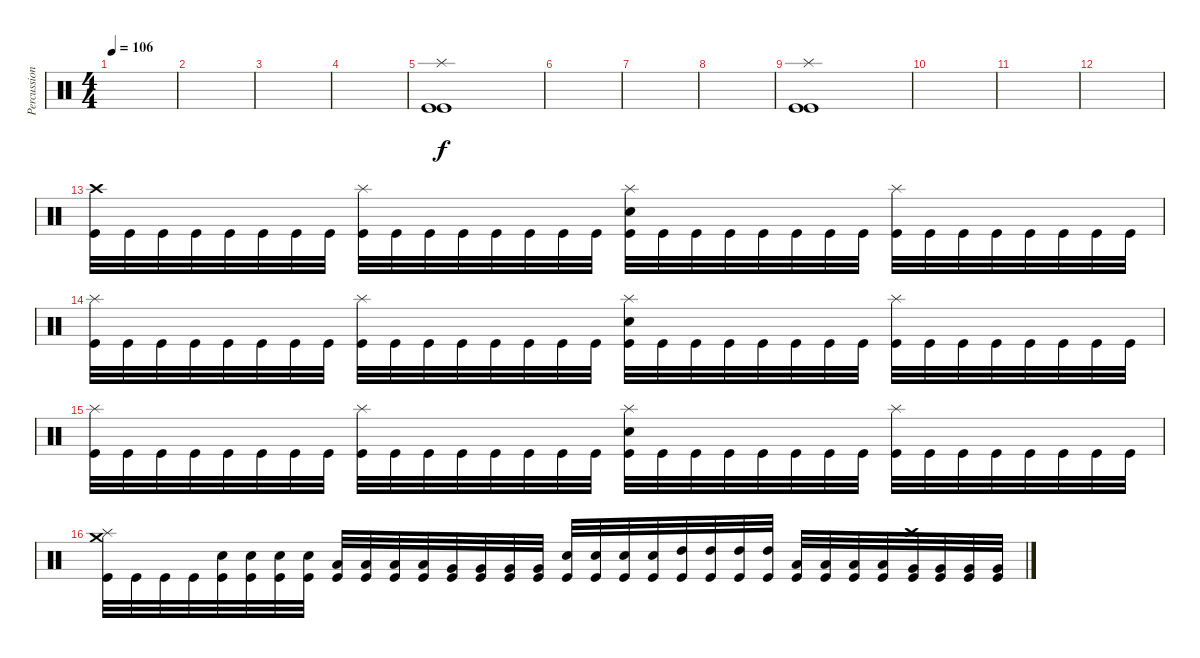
\track ("Percussion" "Percussion") {instrument percussion}
\staff {score}
\articulation defaults
\ts (4 4)
\tempo 106
\clef neutral
\ks c
|
|
|
|
("Splash (hit)" "Kick (hit)" "Kick (hit)").1 |
|
|
|
("Splash (hit)" "Kick (hit)" "Kick (hit)").1 |
|
|
|
("Crash high (hit)" "Kick (hit)").32 "Kick (hit)".32 "Kick (hit)".32 "Kick (hit)".32 "Kick (hit)".32 "Kick (hit)".32 "Kick (hit)".32 "Kick (hit)".32 ("Splash (hit)" "Kick (hit)").32 "Kick (hit)".32 "Kick (hit)".32 "Kick (hit)".32 "Kick (hit)".32 "Kick (hit)".32 "Kick (hit)".32 "Kick (hit)".32 ("Splash (hit)" "Electric Snare (hit)" "Kick (hit)").32 "Kick (hit)".32 "Kick (hit)".32 "Kick (hit)".32 "Kick (hit)".32 "Kick (hit)".32 "Kick (hit)".32 "Kick (hit)".32 ("Splash (hit)" "Kick (hit)").32 "Kick (hit)".32 "Kick (hit)".32 "Kick (hit)".32 "Kick (hit)".32 "Kick (hit)".32 "Kick (hit)".32 "Kick (hit)".32 |
("Splash (hit)" "Kick (hit)").32 "Kick (hit)".32 "Kick (hit)".32 "Kick (hit)".32 "Kick (hit)".32 "Kick (hit)".32 "Kick (hit)".32 "Kick (hit)".32 ("Splash (hit)" "Kick (hit)").32 "Kick (hit)".32 "Kick (hit)".32 "Kick (hit)".32 "Kick (hit)".32 "Kick (hit)".32 "Kick (hit)".32 "Kick (hit)".32 ("Electric Snare (hit)" "Splash (hit)" "Kick (hit)").32 "Kick (hit)".32 "Kick (hit)".32 "Kick (hit)".32 "Kick (hit)".32 "Kick (hit)".32 "Kick (hit)".32 "Kick (hit)".32 ("Splash (hit)" "Kick (hit)").32 "Kick (hit)".32 "Kick (hit)".32 "Kick (hit)".32 "Kick (hit)".32 "Kick (hit)".32 "Kick (hit)".32 "Kick (hit)".32 |
("Splash (hit)" "Kick (hit)").32 "Kick (hit)".32 "Kick (hit)".32 "Kick (hit)".32 "Kick (hit)".32 "Kick (hit)".32 "Kick (hit)".32 "Kick (hit)".32 ("Splash (hit)" "Kick (hit)").32 "Kick (hit)".32 "Kick (hit)".32 "Kick (hit)".32 "Kick (hit)".32 "Kick (hit)".32 "Kick (hit)".32 "Kick (hit)".32 ("Electric Snare (hit)" "Splash (hit)" "Kick (hit)").32 "Kick (hit)".32 "Kick (hit)".32 "Kick (hit)".32 "Kick (hit)".32 "Kick (hit)".32 "Kick (hit)".32 "Kick (hit)".32 ("Splash (hit)" "Kick (hit)").32 "Kick (hit)".32 "Kick (hit)".32 "Kick (hit)".32 "Kick (hit)".32 "Kick (hit)".32 "Kick (hit)".32 "Kick (hit)".32 |
("Crash medium (hit)" "Splash (hit)" "Kick (hit)").32 "Kick (hit)".32 "Kick (hit)".32 "Kick (hit)".32 ("Electric Snare (hit)" "Kick (hit)").32 ("Electric Snare (hit)" "Kick (hit)").32 ("Electric Snare (hit)" "Kick (hit)").32 ("Electric Snare (hit)" "Kick (hit)").32 ("Low Tom (hit)" "Kick (hit)").32 ("Low Tom (hit)" "Kick (hit)").32 ("Low Tom (hit)" "Kick (hit)").32 ("Low Tom (hit)" "Kick (hit)").32 ("Very Low Tom (hit)" "Kick (hit)").32 ("Very Low Tom (hit)" "Kick (hit)").32 ("Very Low Tom (hit)" "Kick (hit)").32 ("Very Low Tom (hit)" "Kick (hit)").32 ("Electric Snare (hit)" "Kick (hit)").32 ("Electric Snare (hit)" "Kick (hit)").32 ("Electric Snare (hit)" "Kick (hit)").32 ("Electric Snare (hit)" "Kick (hit)").32 ("High Tom (hit)" "Kick (hit)").32 ("High Tom (hit)" "Kick (hit)").32 ("High Tom (hit)" "Kick (hit)").32 ("High Tom (hit)" "Kick (hit)").32 ("Low Tom (hit)" "Kick (hit)").32 ("Low Tom (hit)" "Kick (hit)").32 ("Low Tom (hit)" "Kick (hit)").32 ("Low Tom (hit)" "Kick (hit)").32 ("Crash high (hit)" "Very Low Tom (hit)" "Kick (hit)").32 ("Very Low Tom (hit)" "Kick (hit)").32 ("Very Low Tom (hit)" "Kick (hit)").32 ("Very Low Tom (hit)" "Kick (hit)").32
